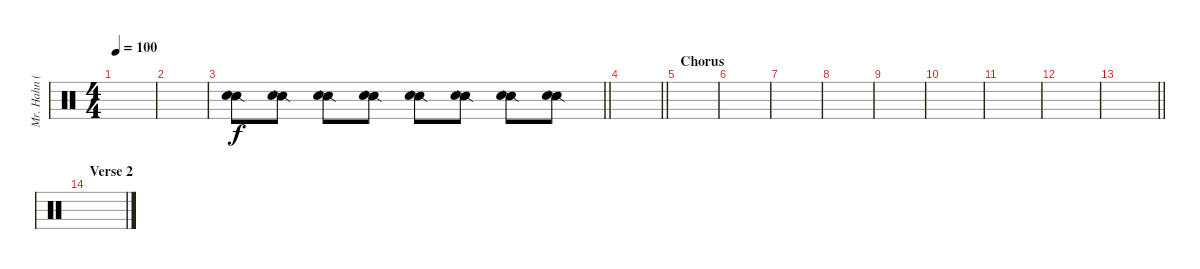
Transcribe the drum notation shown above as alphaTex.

\track ("Mr. Hahn (Sampler)" "Mr. Hahn (") {instrument percussion}
\staff {score}
\articulation defaults
\ts (4 4)
\tempo 100
\clef neutral
\ks c
|
|
\barLineRight lightlight
("Snare (side stick) 2" "Hand Clap (hit)").8 ("Snare (side stick) 2" "Hand Clap (hit)").8 ("Snare (side stick) 2" "Hand Clap (hit)").8 ("Snare (side stick) 2" "Hand Clap (hit)").8 ("Snare (side stick) 2" "Hand Clap (hit)").8 ("Snare (side stick) 2" "Hand Clap (hit)").8 ("Snare (side stick) 2" "Hand Clap (hit)").8 ("Snare (side stick) 2" "Hand Clap (hit)").8 |
\barLineRight lightlight
|
\section ("" "Chorus")
|
|
|
|
|
|
|
|
\barLineRight lightlight
|
\section ("" "Verse 2")
